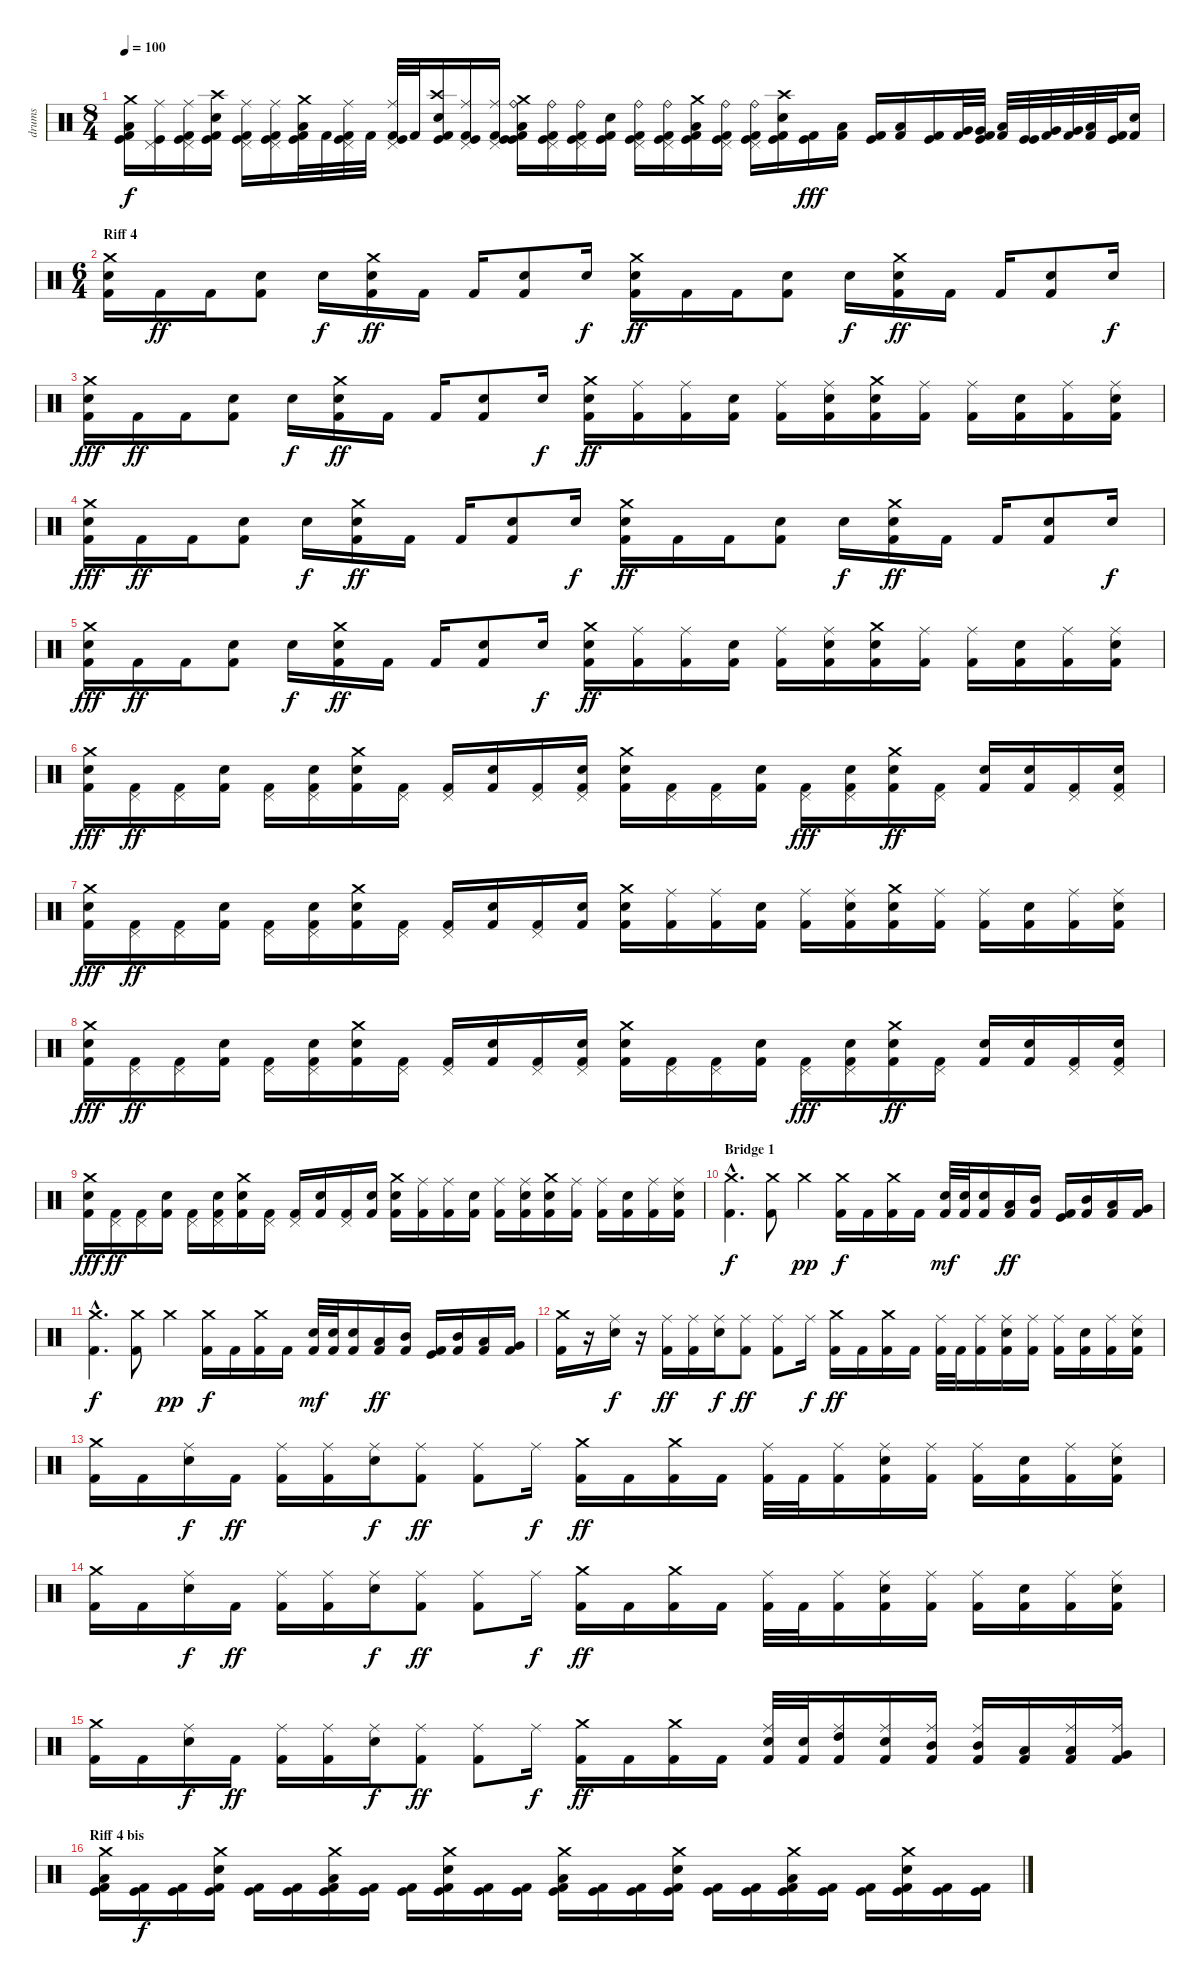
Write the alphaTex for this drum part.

\track ("drums" "drums") {instrument percussion}
\staff {score}
\articulation defaults
\ts (8 4)
\tempo 100
\clef neutral
\ks c
("Crash medium (hit)" "Low Floor Tom (hit)" "Kick (hit) 2" "Kick (hit)").16{dy f} ("Ride (middle)" "Pedal Hi-Hat (hit)" "Kick (hit)").16 ("Ride (middle)" "Pedal Hi-Hat (hit)" "Kick (hit) 2" "Kick (hit)").16 ("Crash high (hit)" "Snare (hit) 2" "Kick (hit) 2" "Kick (hit)").16 ("Ride (middle)" "Pedal Hi-Hat (hit)" "Kick (hit) 2" "Kick (hit)").16 ("Ride (middle)" "Pedal Hi-Hat (hit)" "Kick (hit) 2" "Kick (hit)").16 ("Crash medium (hit)" "Low Floor Tom (hit)" "Kick (hit) 2" "Kick (hit)").32 "Kick (hit) 2".32 ("Ride (middle)" "Pedal Hi-Hat (hit)" "Kick (hit) 2" "Kick (hit)").32 "Kick (hit) 2".32 ("Ride (middle)" "Pedal Hi-Hat (hit)" "Kick (hit) 2" "Kick (hit)").32 "Kick (hit) 2".32 ("Crash high (hit)" "Snare (hit) 2" "Kick (hit) 2" "Kick (hit)").16 ("Ride (middle)" "Pedal Hi-Hat (hit)" "Kick (hit) 2" "Kick (hit)").16 ("Ride (middle)" "Pedal Hi-Hat (hit)" "Kick (hit) 2" "Kick (hit)").16 ("Ride (bell)" "Crash medium (hit)" "Low Floor Tom (hit)" "Kick (hit) 2" "Kick (hit)").16 ("Ride (bell)" "Pedal Hi-Hat (hit)" "Kick (hit) 2" "Kick (hit)").16 ("Ride (bell)" "Pedal Hi-Hat (hit)" "Kick (hit) 2" "Kick (hit)").16 ("Snare (hit) 2" "Kick (hit) 2" "Kick (hit)").16 ("Ride (bell)" "Pedal Hi-Hat (hit)" "Kick (hit) 2" "Kick (hit)").16 ("Ride (bell)" "Pedal Hi-Hat (hit)" "Kick (hit) 2" "Kick (hit)").16 ("Crash medium (hit)" "Low Floor Tom (hit)" "Kick (hit) 2" "Kick (hit)").16 ("Ride (bell)" "Pedal Hi-Hat (hit)" "Kick (hit) 2" "Kick (hit)").16 ("Ride (bell)" "Pedal Hi-Hat (hit)" "Kick (hit) 2" "Kick (hit)").16 ("Crash high (hit)" "Snare (hit) 2" "Kick (hit) 2" "Kick (hit)").16 ("Kick (hit)" "Kick (hit) 2").16{dy fff} ("Low Tom (hit)" "Kick (hit) 2").16 ("Kick (hit)" "Kick (hit) 2").16 ("Low Tom (hit)" "Kick (hit) 2").16 ("Kick (hit)" "Kick (hit) 2").16 ("Very Low Tom (hit)" "Kick (hit) 2").32 ("Very Low Tom (hit)" "Kick (hit)" "Kick (hit) 2").32 ("Low Floor Tom (hit)" "Kick (hit) 2").32 ("Kick (hit)" "Kick (hit)").32 ("Very Low Tom (hit)" "Kick (hit) 2").32 ("Very Low Tom (hit)" "Kick (hit) 2").32 ("Low Floor Tom (hit)" "Kick (hit) 2").32 ("Kick (hit)" "Kick (hit) 2").32 ("Snare (hit) 2" "Kick (hit) 2").16 |
\ts (6 4)
\section ("" "Riff 4")
("Crash medium (hit)" "Snare (hit) 2" "Kick (hit) 2").16 "Kick (hit) 2".16{dy ff} "Kick (hit) 2".16 ("Snare (hit) 2" "Kick (hit) 2").8 "Snare (hit) 2".16{dy f} ("Crash medium (hit)" "Electric Snare (hit)" "Kick (hit) 2").16{dy ff} "Kick (hit) 2".16 "Kick (hit) 2".16 ("Snare (hit) 2" "Kick (hit) 2").8 "Snare (hit) 2".16{dy f} ("Crash medium (hit)" "Electric Snare (hit)" "Kick (hit) 2").16{dy ff} "Kick (hit) 2".16 "Kick (hit) 2".16 ("Snare (hit) 2" "Kick (hit) 2").8 "Snare (hit) 2".16{dy f} ("Crash medium (hit)" "Electric Snare (hit)" "Kick (hit) 2").16{dy ff} "Kick (hit) 2".16 "Kick (hit) 2".16 ("Snare (hit) 2" "Kick (hit) 2").8 "Snare (hit) 2".16{dy f} |
("Crash medium (hit)" "Snare (hit) 2" "Kick (hit) 2").16{dy fff} "Kick (hit) 2".16{dy ff} "Kick (hit) 2".16 ("Snare (hit) 2" "Kick (hit) 2").8 "Snare (hit) 2".16{dy f} ("Crash medium (hit)" "Electric Snare (hit)" "Kick (hit) 2").16{dy ff} "Kick (hit) 2".16 "Kick (hit) 2".16 ("Snare (hit) 2" "Kick (hit) 2").8 "Snare (hit) 2".16{dy f} ("Crash medium (hit)" "Electric Snare (hit)" "Kick (hit) 2").16{dy ff} ("Ride (middle)" "Kick (hit) 2").16 ("Ride (middle)" "Kick (hit) 2").16 ("Snare (hit) 2" "Kick (hit) 2").16 ("Ride (middle)" "Kick (hit) 2").16 ("Ride (middle)" "Snare (hit) 2" "Kick (hit) 2").16 ("Crash medium (hit)" "Electric Snare (hit)" "Kick (hit) 2").16 ("Ride (middle)" "Kick (hit) 2").16 ("Ride (middle)" "Kick (hit) 2").16 ("Snare (hit) 2" "Kick (hit) 2").16 ("Ride (middle)" "Kick (hit) 2").16 ("Ride (middle)" "Snare (hit) 2" "Kick (hit) 2").16 |
("Crash medium (hit)" "Snare (hit) 2" "Kick (hit) 2").16{dy fff} "Kick (hit) 2".16{dy ff} "Kick (hit) 2".16 ("Snare (hit) 2" "Kick (hit) 2").8 "Snare (hit) 2".16{dy f} ("Crash medium (hit)" "Electric Snare (hit)" "Kick (hit) 2").16{dy ff} "Kick (hit) 2".16 "Kick (hit) 2".16 ("Snare (hit) 2" "Kick (hit) 2").8 "Snare (hit) 2".16{dy f} ("Crash medium (hit)" "Electric Snare (hit)" "Kick (hit) 2").16{dy ff} "Kick (hit) 2".16 "Kick (hit) 2".16 ("Snare (hit) 2" "Kick (hit) 2").8 "Snare (hit) 2".16{dy f} ("Crash medium (hit)" "Electric Snare (hit)" "Kick (hit) 2").16{dy ff} "Kick (hit) 2".16 "Kick (hit) 2".16 ("Snare (hit) 2" "Kick (hit) 2").8 "Snare (hit) 2".16{dy f} |
("Crash medium (hit)" "Snare (hit) 2" "Kick (hit) 2").16{dy fff} "Kick (hit) 2".16{dy ff} "Kick (hit) 2".16 ("Snare (hit) 2" "Kick (hit) 2").8 "Snare (hit) 2".16{dy f} ("Crash medium (hit)" "Electric Snare (hit)" "Kick (hit) 2").16{dy ff} "Kick (hit) 2".16 "Kick (hit) 2".16 ("Snare (hit) 2" "Kick (hit) 2").8 "Snare (hit) 2".16{dy f} ("Crash medium (hit)" "Electric Snare (hit)" "Kick (hit) 2").16{dy ff} ("Ride (middle)" "Kick (hit) 2").16 ("Ride (middle)" "Kick (hit) 2").16 ("Snare (hit) 2" "Kick (hit) 2").16 ("Ride (middle)" "Kick (hit) 2").16 ("Ride (middle)" "Snare (hit) 2" "Kick (hit) 2").16 ("Crash medium (hit)" "Electric Snare (hit)" "Kick (hit) 2").16 ("Ride (middle)" "Kick (hit) 2").16 ("Ride (middle)" "Kick (hit) 2").16 ("Snare (hit) 2" "Kick (hit) 2").16 ("Ride (middle)" "Kick (hit) 2").16 ("Ride (middle)" "Snare (hit) 2" "Kick (hit) 2").16 |
("Crash medium (hit)" "Snare (hit) 2" "Kick (hit) 2").16{dy fff} ("Pedal Hi-Hat (hit)" "Kick (hit) 2").16{dy ff} ("Pedal Hi-Hat (hit)" "Kick (hit) 2").16 ("Snare (hit) 2" "Kick (hit) 2").16 ("Pedal Hi-Hat (hit)" "Kick (hit) 2").16 ("Pedal Hi-Hat (hit)" "Snare (hit) 2" "Kick (hit) 2").16 ("Crash medium (hit)" "Electric Snare (hit)" "Kick (hit) 2").16 ("Pedal Hi-Hat (hit)" "Kick (hit) 2").16 ("Pedal Hi-Hat (hit)" "Kick (hit) 2").16 ("Snare (hit) 2" "Kick (hit) 2").16 ("Pedal Hi-Hat (hit)" "Kick (hit) 2").16 ("Pedal Hi-Hat (hit)" "Snare (hit) 2" "Kick (hit) 2").16 ("Crash medium (hit)" "Electric Snare (hit)" "Kick (hit) 2").16 ("Pedal Hi-Hat (hit)" "Kick (hit) 2").16 ("Pedal Hi-Hat (hit)" "Kick (hit) 2").16 ("Snare (hit) 2" "Kick (hit) 2").16 ("Pedal Hi-Hat (hit)" "Kick (hit) 2").16{dy fff} ("Pedal Hi-Hat (hit)" "Snare (hit) 2" "Kick (hit) 2").16 ("Crash medium (hit)" "Electric Snare (hit)" "Kick (hit) 2").16{dy ff} ("Pedal Hi-Hat (hit)" "Kick (hit) 2").16 ("Snare (hit)" "Kick (hit) 2").16 ("Snare (hit) 2" "Kick (hit) 2").16 ("Pedal Hi-Hat (hit)" "Kick (hit) 2").16 ("Pedal Hi-Hat (hit)" "Snare (hit) 2" "Kick (hit) 2").16 |
("Crash medium (hit)" "Snare (hit) 2" "Kick (hit) 2").16{dy fff} ("Pedal Hi-Hat (hit)" "Kick (hit) 2").16{dy ff} ("Pedal Hi-Hat (hit)" "Kick (hit) 2").16 ("Snare (hit) 2" "Kick (hit) 2").16 ("Pedal Hi-Hat (hit)" "Kick (hit) 2").16 ("Pedal Hi-Hat (hit)" "Snare (hit) 2" "Kick (hit) 2").16 ("Crash medium (hit)" "Electric Snare (hit)" "Kick (hit) 2").16 ("Pedal Hi-Hat (hit)" "Kick (hit) 2").16 ("Pedal Hi-Hat (hit)" "Kick (hit) 2").16 ("Snare (hit) 2" "Kick (hit) 2").16 ("Pedal Hi-Hat (hit)" "Kick (hit) 2").16 ("Snare (hit) 2" "Kick (hit) 2").16 ("Crash medium (hit)" "Electric Snare (hit)" "Kick (hit) 2").16 ("Ride (middle)" "Kick (hit) 2").16 ("Ride (middle)" "Kick (hit) 2").16 ("Snare (hit) 2" "Kick (hit) 2").16 ("Ride (middle)" "Kick (hit) 2").16 ("Ride (middle)" "Snare (hit) 2" "Kick (hit) 2").16 ("Crash medium (hit)" "Electric Snare (hit)" "Kick (hit) 2").16 ("Ride (middle)" "Kick (hit) 2").16 ("Ride (middle)" "Kick (hit) 2").16 ("Snare (hit) 2" "Kick (hit) 2").16 ("Ride (middle)" "Kick (hit) 2").16 ("Ride (middle)" "Snare (hit) 2" "Kick (hit) 2").16 |
("Crash medium (hit)" "Snare (hit) 2" "Kick (hit) 2").16{dy fff} ("Pedal Hi-Hat (hit)" "Kick (hit) 2").16{dy ff} ("Pedal Hi-Hat (hit)" "Kick (hit) 2").16 ("Snare (hit) 2" "Kick (hit) 2").16 ("Pedal Hi-Hat (hit)" "Kick (hit) 2").16 ("Pedal Hi-Hat (hit)" "Snare (hit) 2" "Kick (hit) 2").16 ("Crash medium (hit)" "Electric Snare (hit)" "Kick (hit) 2").16 ("Pedal Hi-Hat (hit)" "Kick (hit) 2").16 ("Pedal Hi-Hat (hit)" "Kick (hit) 2").16 ("Snare (hit) 2" "Kick (hit) 2").16 ("Pedal Hi-Hat (hit)" "Kick (hit) 2").16 ("Pedal Hi-Hat (hit)" "Snare (hit) 2" "Kick (hit) 2").16 ("Crash medium (hit)" "Electric Snare (hit)" "Kick (hit) 2").16 ("Pedal Hi-Hat (hit)" "Kick (hit) 2").16 ("Pedal Hi-Hat (hit)" "Kick (hit) 2").16 ("Snare (hit) 2" "Kick (hit) 2").16 ("Pedal Hi-Hat (hit)" "Kick (hit) 2").16{dy fff} ("Pedal Hi-Hat (hit)" "Snare (hit) 2" "Kick (hit) 2").16 ("Crash medium (hit)" "Electric Snare (hit)" "Kick (hit) 2").16{dy ff} ("Pedal Hi-Hat (hit)" "Kick (hit) 2").16 ("Snare (hit)" "Kick (hit) 2").16 ("Snare (hit) 2" "Kick (hit) 2").16 ("Pedal Hi-Hat (hit)" "Kick (hit) 2").16 ("Pedal Hi-Hat (hit)" "Snare (hit) 2" "Kick (hit) 2").16 |
("Crash medium (hit)" "Snare (hit) 2" "Kick (hit) 2").16{dy fff} ("Pedal Hi-Hat (hit)" "Kick (hit) 2").16{dy ff} ("Pedal Hi-Hat (hit)" "Kick (hit) 2").16 ("Snare (hit) 2" "Kick (hit) 2").16 ("Pedal Hi-Hat (hit)" "Kick (hit) 2").16 ("Pedal Hi-Hat (hit)" "Snare (hit) 2" "Kick (hit) 2").16 ("Crash medium (hit)" "Electric Snare (hit)" "Kick (hit) 2").16 ("Pedal Hi-Hat (hit)" "Kick (hit) 2").16 ("Pedal Hi-Hat (hit)" "Kick (hit) 2").16 ("Snare (hit) 2" "Kick (hit) 2").16 ("Pedal Hi-Hat (hit)" "Kick (hit) 2").16 ("Snare (hit) 2" "Kick (hit) 2").16 ("Crash medium (hit)" "Electric Snare (hit)" "Kick (hit) 2").16 ("Ride (middle)" "Kick (hit) 2").16 ("Ride (middle)" "Kick (hit) 2").16 ("Snare (hit) 2" "Kick (hit) 2").16 ("Ride (middle)" "Kick (hit) 2").16 ("Ride (middle)" "Snare (hit) 2" "Kick (hit) 2").16 ("Crash medium (hit)" "Electric Snare (hit)" "Kick (hit) 2").16 ("Ride (middle)" "Kick (hit) 2").16 ("Ride (middle)" "Kick (hit) 2").16 ("Snare (hit) 2" "Kick (hit) 2").16 ("Ride (middle)" "Kick (hit) 2").16 ("Ride (middle)" "Snare (hit) 2" "Kick (hit) 2").16 |
\section ("" "Bridge 1")
("Crash medium (hit)"{hac} "Kick (hit) 2"{hac}).4{d dy f} ("Crash medium (hit)" "Kick (hit) 2").8 "Crash medium (hit)".4{dy pp} ("Crash medium (hit)" "Kick (hit) 2").16{dy f} "Kick (hit) 2".16 ("Crash medium (hit)" "Kick (hit) 2").16 "Kick (hit) 2".16 ("Electric Snare (hit)" "Kick (hit) 2").32{dy mf} ("Snare (hit) 2" "Kick (hit) 2").32 ("Snare (hit) 2" "Kick (hit) 2").16 ("Low Tom (hit)" "Kick (hit) 2").16{dy ff} ("Mid Tom (hit)" "Kick (hit) 2").16 ("Kick (hit)" "Kick (hit) 2").16 ("Mid Tom (hit)" "Kick (hit) 2").16 ("Low Tom (hit)" "Kick (hit) 2").16 ("Very Low Tom (hit)" "Kick (hit) 2").16 |
("Crash medium (hit)"{hac} "Kick (hit) 2"{hac}).4{d dy f} ("Crash medium (hit)" "Kick (hit) 2").8 "Crash medium (hit)".4{dy pp} ("Crash medium (hit)" "Kick (hit) 2").16{dy f} "Kick (hit) 2".16 ("Crash medium (hit)" "Kick (hit) 2").16 "Kick (hit) 2".16 ("Electric Snare (hit)" "Kick (hit) 2").32{dy mf} ("Snare (hit) 2" "Kick (hit) 2").32 ("Snare (hit) 2" "Kick (hit) 2").16 ("Low Tom (hit)" "Kick (hit) 2").16{dy ff} ("Mid Tom (hit)" "Kick (hit) 2").16 ("Kick (hit)" "Kick (hit) 2").16 ("Mid Tom (hit)" "Kick (hit) 2").16 ("Low Tom (hit)" "Kick (hit) 2").16 ("Very Low Tom (hit)" "Kick (hit) 2").16 |
("Crash medium (hit)" "Kick (hit) 2").16 r.16 ("Ride (middle)" "Electric Snare (hit)").16{dy f} r.16 ("Ride (middle)" "Kick (hit) 2").16{dy ff} ("Ride (middle)" "Kick (hit) 2").16 ("Ride (middle)" "Electric Snare (hit)").16{dy f} ("Ride (middle)" "Kick (hit) 2").8{dy ff} ("Ride (middle)" "Kick (hit) 2").8 "Ride (middle)".16{dy f} ("Crash medium (hit)" "Kick (hit) 2").16{dy ff} "Kick (hit) 2".16 ("Crash medium (hit)" "Kick (hit) 2").16 "Kick (hit) 2".16 ("Ride (middle)" "Kick (hit) 2").32 "Kick (hit) 2".32 ("Ride (middle)" "Kick (hit) 2").16 ("Ride (middle)" "Electric Snare (hit)" "Kick (hit) 2").16 ("Ride (middle)" "Kick (hit) 2").16 ("Ride (middle)" "Kick (hit) 2").16 ("Electric Snare (hit)" "Kick (hit) 2").16 ("Ride (middle)" "Kick (hit) 2").16 ("Ride (middle)" "Snare (hit) 2" "Kick (hit) 2").16 |
("Crash medium (hit)" "Kick (hit) 2").16 "Kick (hit) 2".16 ("Ride (middle)" "Electric Snare (hit)").16{dy f} "Kick (hit) 2".16{dy ff} ("Ride (middle)" "Kick (hit) 2").16 ("Ride (middle)" "Kick (hit) 2").16 ("Ride (middle)" "Electric Snare (hit)").16{dy f} ("Ride (middle)" "Kick (hit) 2").8{dy ff} ("Ride (middle)" "Kick (hit) 2").8 "Ride (middle)".16{dy f} ("Crash medium (hit)" "Kick (hit) 2").16{dy ff} "Kick (hit) 2".16 ("Crash medium (hit)" "Kick (hit) 2").16 "Kick (hit) 2".16 ("Ride (middle)" "Kick (hit) 2").32 "Kick (hit) 2".32 ("Ride (middle)" "Kick (hit) 2").16 ("Ride (middle)" "Electric Snare (hit)" "Kick (hit) 2").16 ("Ride (middle)" "Kick (hit) 2").16 ("Ride (middle)" "Kick (hit) 2").16 ("Electric Snare (hit)" "Kick (hit) 2").16 ("Ride (middle)" "Kick (hit) 2").16 ("Ride (middle)" "Snare (hit) 2" "Kick (hit) 2").16 |
("Crash medium (hit)" "Kick (hit) 2").16 "Kick (hit) 2".16 ("Ride (middle)" "Electric Snare (hit)").16{dy f} "Kick (hit) 2".16{dy ff} ("Ride (middle)" "Kick (hit) 2").16 ("Ride (middle)" "Kick (hit) 2").16 ("Ride (middle)" "Electric Snare (hit)").16{dy f} ("Ride (middle)" "Kick (hit) 2").8{dy ff} ("Ride (middle)" "Kick (hit) 2").8 "Ride (middle)".16{dy f} ("Crash medium (hit)" "Kick (hit) 2").16{dy ff} "Kick (hit) 2".16 ("Crash medium (hit)" "Kick (hit) 2").16 "Kick (hit) 2".16 ("Ride (middle)" "Kick (hit) 2").32 "Kick (hit) 2".32 ("Ride (middle)" "Kick (hit) 2").16 ("Ride (middle)" "Electric Snare (hit)" "Kick (hit) 2").16 ("Ride (middle)" "Kick (hit) 2").16 ("Ride (middle)" "Kick (hit) 2").16 ("Electric Snare (hit)" "Kick (hit) 2").16 ("Ride (middle)" "Kick (hit) 2").16 ("Ride (middle)" "Snare (hit) 2" "Kick (hit) 2").16 |
("Crash medium (hit)" "Kick (hit) 2").16 "Kick (hit) 2".16 ("Ride (middle)" "Electric Snare (hit)").16{dy f} "Kick (hit) 2".16{dy ff} ("Ride (middle)" "Kick (hit) 2").16 ("Ride (middle)" "Kick (hit) 2").16 ("Ride (middle)" "Electric Snare (hit)").16{dy f} ("Ride (middle)" "Kick (hit) 2").8{dy ff} ("Ride (middle)" "Kick (hit) 2").8 "Ride (middle)".16{dy f} ("Crash medium (hit)" "Kick (hit) 2").16{dy ff} "Kick (hit) 2".16 ("Crash medium (hit)" "Kick (hit) 2").16 "Kick (hit) 2".16 ("Ride (middle)" "Electric Snare (hit)" "Kick (hit) 2").32 ("Snare (hit) 2" "Kick (hit) 2").32 ("Ride (middle)" "High Tom (hit)" "Kick (hit) 2").16 ("Ride (middle)" "Electric Snare (hit)" "Kick (hit) 2").16 ("Ride (middle)" "Mid Tom (hit)" "Kick (hit) 2").16 ("Ride (middle)" "Mid Tom (hit)" "Kick (hit) 2").16 ("Low Tom (hit)" "Kick (hit) 2").16 ("Ride (middle)" "Low Tom (hit)" "Kick (hit) 2").16 ("Ride (middle)" "Very Low Tom (hit)" "Kick (hit) 2").16 |
\section ("" "Riff 4 bis")
("Crash medium (hit)" "Low Floor Tom (hit)" "Kick (hit)" "Kick (hit) 2").16 ("Kick (hit)" "Kick (hit) 2").16{dy f} ("Kick (hit)" "Kick (hit) 2").16 ("Crash medium (hit)" "Snare (hit) 2" "Kick (hit)" "Kick (hit) 2").16 ("Kick (hit)" "Kick (hit) 2").16 ("Kick (hit)" "Kick (hit) 2").16 ("Crash medium (hit)" "Low Floor Tom (hit)" "Kick (hit)" "Kick (hit) 2").16 ("Kick (hit)" "Kick (hit) 2").16 ("Kick (hit)" "Kick (hit) 2").16 ("Crash medium (hit)" "Snare (hit) 2" "Kick (hit)" "Kick (hit) 2").16 ("Kick (hit)" "Kick (hit) 2").16 ("Kick (hit)" "Kick (hit) 2").16 ("Crash medium (hit)" "Low Floor Tom (hit)" "Kick (hit)" "Kick (hit) 2").16 ("Kick (hit)" "Kick (hit) 2").16 ("Kick (hit)" "Kick (hit) 2").16 ("Crash medium (hit)" "Snare (hit) 2" "Kick (hit)" "Kick (hit) 2").16 ("Kick (hit)" "Kick (hit) 2").16 ("Kick (hit)" "Kick (hit) 2").16 ("Crash medium (hit)" "Low Floor Tom (hit)" "Kick (hit)" "Kick (hit) 2").16 ("Kick (hit)" "Kick (hit) 2").16 ("Kick (hit)" "Kick (hit) 2").16 ("Crash medium (hit)" "Snare (hit) 2" "Kick (hit)" "Kick (hit) 2").16 ("Kick (hit)" "Kick (hit) 2").16 ("Kick (hit)" "Kick (hit) 2").16
